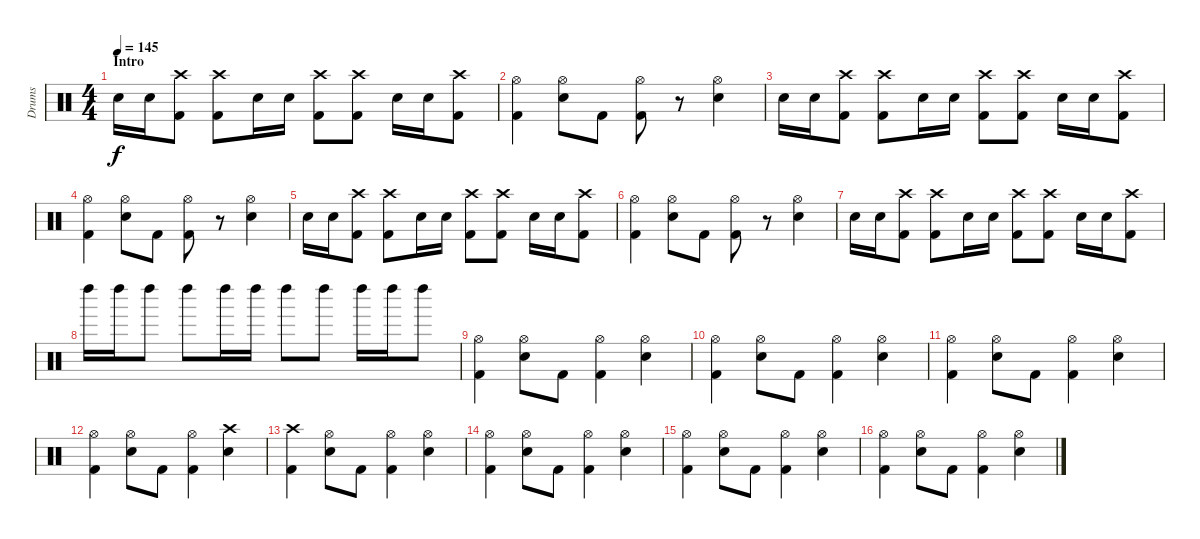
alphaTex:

\track ("Drums" "Drums") {instrument percussion}
\staff {score}
\articulation defaults
\ts (4 4)
\section ("" "Intro")
\tempo 145
\clef neutral
\ks c "Snare (hit) 2".16{dy f} "Snare (hit) 2".16
("Crash high (hit)" "Kick (hit) 2").8 ("Crash high (hit)" "Kick (hit) 2").8 "Snare (hit) 2".16 "Snare (hit) 2".16 ("Crash high (hit)" "Kick (hit) 2").8 ("Crash high (hit)" "Kick (hit) 2").8 "Snare (hit) 2".16 "Snare (hit) 2".16 ("Crash high (hit)" "Kick (hit) 2").8 |
("Hi-Hat (open)" "Kick (hit) 2").4 ("Hi-Hat (open)" "Snare (hit) 2").8 "Kick (hit) 2".8 ("Hi-Hat (open)" "Kick (hit) 2").8 r.8 ("Hi-Hat (open)" "Snare (hit) 2").4 |
"Snare (hit) 2".16 "Snare (hit) 2".16 ("Crash high (hit)" "Kick (hit) 2").8 ("Crash high (hit)" "Kick (hit) 2").8 "Snare (hit) 2".16 "Snare (hit) 2".16 ("Crash high (hit)" "Kick (hit) 2").8 ("Crash high (hit)" "Kick (hit) 2").8 "Snare (hit) 2".16 "Snare (hit) 2".16 ("Crash high (hit)" "Kick (hit) 2").8 |
("Hi-Hat (open)" "Kick (hit) 2").4 ("Hi-Hat (open)" "Snare (hit) 2").8 "Kick (hit) 2".8 ("Hi-Hat (open)" "Kick (hit) 2").8 r.8 ("Hi-Hat (open)" "Snare (hit) 2").4 |
"Snare (hit) 2".16 "Snare (hit) 2".16 ("Crash high (hit)" "Kick (hit) 2").8 ("Crash high (hit)" "Kick (hit) 2").8 "Snare (hit) 2".16 "Snare (hit) 2".16 ("Crash high (hit)" "Kick (hit) 2").8 ("Crash high (hit)" "Kick (hit) 2").8 "Snare (hit) 2".16 "Snare (hit) 2".16 ("Crash high (hit)" "Kick (hit) 2").8 |
("Hi-Hat (open)" "Kick (hit) 2").4 ("Hi-Hat (open)" "Snare (hit) 2").8 "Kick (hit) 2".8 ("Hi-Hat (open)" "Kick (hit) 2").8 r.8 ("Hi-Hat (open)" "Snare (hit) 2").4 |
"Snare (hit) 2".16 "Snare (hit) 2".16 ("Crash high (hit)" "Kick (hit) 2").8 ("Crash high (hit)" "Kick (hit) 2").8 "Snare (hit) 2".16 "Snare (hit) 2".16 ("Crash high (hit)" "Kick (hit) 2").8 ("Crash high (hit)" "Kick (hit) 2").8 "Snare (hit) 2".16 "Snare (hit) 2".16 ("Crash high (hit)" "Kick (hit) 2").8 |
"Left Maraca (hit)".16 "Left Maraca (hit)".16 "Left Maraca (hit)".8 "Left Maraca (hit)".8 "Left Maraca (hit)".16 "Left Maraca (hit)".16 "Left Maraca (hit)".8 "Left Maraca (hit)".8 "Left Maraca (hit)".16 "Left Maraca (hit)".16 "Left Maraca (hit)".8 |
("Hi-Hat (open)" "Kick (hit) 2").4 ("Hi-Hat (open)" "Snare (hit) 2").8 "Kick (hit) 2".8 ("Hi-Hat (open)" "Kick (hit) 2").4 ("Hi-Hat (open)" "Snare (hit) 2").4 |
("Hi-Hat (open)" "Kick (hit) 2").4 ("Hi-Hat (open)" "Snare (hit) 2").8 "Kick (hit) 2".8 ("Hi-Hat (open)" "Kick (hit) 2").4 ("Hi-Hat (open)" "Snare (hit) 2").4 |
("Hi-Hat (open)" "Kick (hit) 2").4 ("Hi-Hat (open)" "Snare (hit) 2").8 "Kick (hit) 2".8 ("Hi-Hat (open)" "Kick (hit) 2").4 ("Hi-Hat (open)" "Snare (hit) 2").4 |
("Hi-Hat (open)" "Kick (hit) 2").4 ("Hi-Hat (open)" "Snare (hit) 2").8 "Kick (hit) 2".8 ("Hi-Hat (open)" "Kick (hit) 2").4 ("Crash high (hit)" "Snare (hit) 2").4 |
("Crash high (hit)" "Kick (hit) 2").4 ("Hi-Hat (open)" "Snare (hit) 2").8 "Kick (hit) 2".8 ("Hi-Hat (open)" "Kick (hit) 2").4 ("Hi-Hat (open)" "Snare (hit) 2").4 |
("Hi-Hat (open)" "Kick (hit) 2").4 ("Hi-Hat (open)" "Snare (hit) 2").8 "Kick (hit) 2".8 ("Hi-Hat (open)" "Kick (hit) 2").4 ("Hi-Hat (open)" "Snare (hit) 2").4 |
("Hi-Hat (open)" "Kick (hit) 2").4 ("Hi-Hat (open)" "Snare (hit) 2").8 "Kick (hit) 2".8 ("Hi-Hat (open)" "Kick (hit) 2").4 ("Hi-Hat (open)" "Snare (hit) 2").4 |
("Hi-Hat (open)" "Kick (hit) 2").4 ("Hi-Hat (open)" "Snare (hit) 2").8 "Kick (hit) 2".8 ("Hi-Hat (open)" "Kick (hit) 2").4 ("Hi-Hat (open)" "Snare (hit) 2").4
